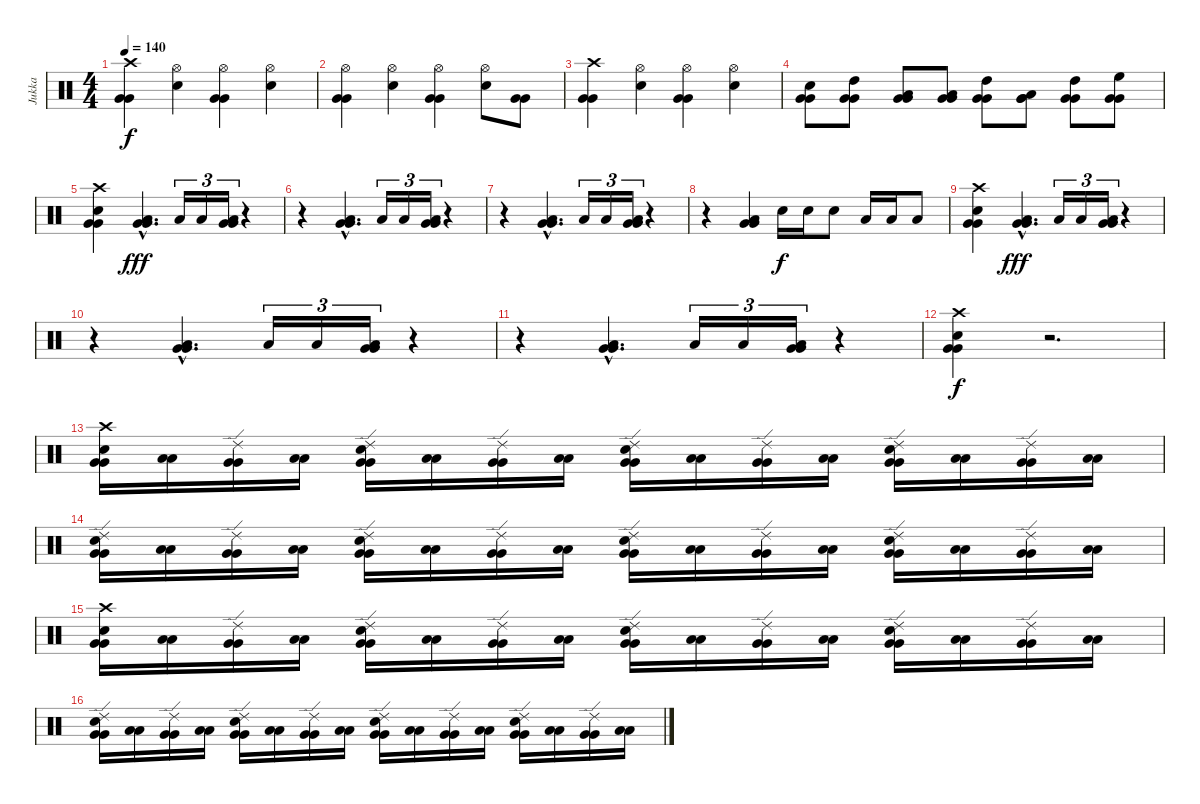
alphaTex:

\track ("Jukka" "Jukka") {instrument percussion}
\staff {score}
\articulation defaults
\ts (4 4)
\tempo 140
\clef neutral
\ks c
("Crash high (hit)" "Very Low Tom (hit)" "Very Low Tom (hit)").4{dy f} ("Hi-Hat (open)" "Electric Snare (hit)").4 ("Hi-Hat (open)" "Very Low Tom (hit)" "Very Low Tom (hit)").4 ("Hi-Hat (open)" "Electric Snare (hit)").4 |
("Hi-Hat (open)" "Very Low Tom (hit)" "Very Low Tom (hit)").4 ("Hi-Hat (open)" "Electric Snare (hit)").4 ("Hi-Hat (open)" "Very Low Tom (hit)" "Very Low Tom (hit)").4 ("Hi-Hat (open)" "Electric Snare (hit)").8 ("Very Low Tom (hit)" "Very Low Tom (hit)").8 |
("Crash high (hit)" "Very Low Tom (hit)" "Very Low Tom (hit)").4 ("Hi-Hat (open)" "Electric Snare (hit)").4 ("Hi-Hat (open)" "Very Low Tom (hit)" "Very Low Tom (hit)").4 ("Hi-Hat (open)" "Electric Snare (hit)").4 |
("Electric Snare (hit)" "Very Low Tom (hit)" "Very Low Tom (hit)").8 ("High Tom (hit)" "Very Low Tom (hit)" "Very Low Tom (hit)").8 ("Low Tom (hit)" "Very Low Tom (hit)" "Very Low Tom (hit)").8 ("Low Tom (hit)" "Very Low Tom (hit)" "Very Low Tom (hit)").8 ("High Tom (hit)" "Very Low Tom (hit)" "Very Low Tom (hit)").8 ("Low Tom (hit)" "Very Low Tom (hit)" "Very Low Tom (hit)").8 ("High Tom (hit)" "Very Low Tom (hit)" "Very Low Tom (hit)").8 ("High Floor Tom (hit)" "Very Low Tom (hit)" "Very Low Tom (hit)").8 |
("Crash high (hit)" "Electric Snare (hit)" "Very Low Tom (hit)" "Very Low Tom (hit)").4 ("Low Tom (hit)"{hac} "Very Low Tom (hit)"{hac} "Very Low Tom (hit)"{hac}).4{d dy fff} "Low Tom (hit)".16{tu (3 2)} "Low Tom (hit)".16{tu (3 2)} ("Low Tom (hit)" "Very Low Tom (hit)" "Very Low Tom (hit)").16{tu (3 2)} r.4 |
r.4 ("Low Tom (hit)"{hac} "Very Low Tom (hit)"{hac} "Very Low Tom (hit)"{hac}).4{d} "Low Tom (hit)".16{tu (3 2)} "Low Tom (hit)".16{tu (3 2)} ("Low Tom (hit)" "Very Low Tom (hit)" "Very Low Tom (hit)").16{tu (3 2)} r.4 |
r.4 ("Low Tom (hit)"{hac} "Very Low Tom (hit)"{hac} "Very Low Tom (hit)"{hac}).4{d} "Low Tom (hit)".16{tu (3 2)} "Low Tom (hit)".16{tu (3 2)} ("Low Tom (hit)" "Very Low Tom (hit)" "Very Low Tom (hit)").16{tu (3 2)} r.4 |
r.4 ("Low Tom (hit)" "Very Low Tom (hit)" "Very Low Tom (hit)").4 "Electric Snare (hit)".16{dy f} "Electric Snare (hit)".16 "Electric Snare (hit)".8 "Low Tom (hit)".16 "Low Tom (hit)".16 "Low Tom (hit)".8 |
("Crash high (hit)" "Electric Snare (hit)" "Very Low Tom (hit)" "Very Low Tom (hit)").4 ("Low Tom (hit)"{hac} "Very Low Tom (hit)"{hac} "Very Low Tom (hit)"{hac}).4{d dy fff} "Low Tom (hit)".16{tu (3 2)} "Low Tom (hit)".16{tu (3 2)} ("Low Tom (hit)" "Very Low Tom (hit)" "Very Low Tom (hit)").16{tu (3 2)} r.4 |
r.4 ("Low Tom (hit)"{hac} "Very Low Tom (hit)"{hac} "Very Low Tom (hit)"{hac}).4{d} "Low Tom (hit)".16{tu (3 2)} "Low Tom (hit)".16{tu (3 2)} ("Low Tom (hit)" "Very Low Tom (hit)" "Very Low Tom (hit)").16{tu (3 2)} r.4 |
r.4 ("Low Tom (hit)"{hac} "Very Low Tom (hit)"{hac} "Very Low Tom (hit)"{hac}).4{d} "Low Tom (hit)".16{tu (3 2)} "Low Tom (hit)".16{tu (3 2)} ("Low Tom (hit)" "Very Low Tom (hit)" "Very Low Tom (hit)").16{tu (3 2)} r.4 |
("Crash high (hit)" "Electric Snare (hit)" "Very Low Tom (hit)" "Very Low Tom (hit)").4{dy f} r.2{d} |
("Crash high (hit)" "Electric Snare (hit)" "Very Low Tom (hit)" "Very Low Tom (hit)").16 ("Low Floor Tom (hit)" "Low Floor Tom (hit)").16 ("Ride (edge) 2" "Very Low Tom (hit)" "Very Low Tom (hit)").16 ("Low Floor Tom (hit)" "Low Floor Tom (hit)").16 ("Ride (edge) 2" "Electric Snare (hit)" "Very Low Tom (hit)" "Very Low Tom (hit)").16 ("Low Floor Tom (hit)" "Low Floor Tom (hit)").16 ("Ride (edge) 2" "Very Low Tom (hit)" "Very Low Tom (hit)").16 ("Low Floor Tom (hit)" "Low Floor Tom (hit)").16 ("Ride (edge) 2" "Electric Snare (hit)" "Very Low Tom (hit)" "Very Low Tom (hit)").16 ("Low Floor Tom (hit)" "Low Floor Tom (hit)").16 ("Ride (edge) 2" "Very Low Tom (hit)" "Very Low Tom (hit)").16 ("Low Floor Tom (hit)" "Low Floor Tom (hit)").16 ("Ride (edge) 2" "Electric Snare (hit)" "Very Low Tom (hit)" "Very Low Tom (hit)").16 ("Low Floor Tom (hit)" "Low Floor Tom (hit)").16 ("Ride (edge) 2" "Very Low Tom (hit)" "Very Low Tom (hit)").16 ("Low Floor Tom (hit)" "Low Floor Tom (hit)").16 |
("Ride (edge) 2" "Electric Snare (hit)" "Very Low Tom (hit)" "Very Low Tom (hit)").16 ("Low Floor Tom (hit)" "Low Floor Tom (hit)").16 ("Ride (edge) 2" "Very Low Tom (hit)" "Very Low Tom (hit)").16 ("Low Floor Tom (hit)" "Low Floor Tom (hit)").16 ("Ride (edge) 2" "Electric Snare (hit)" "Very Low Tom (hit)" "Very Low Tom (hit)").16 ("Low Floor Tom (hit)" "Low Floor Tom (hit)").16 ("Ride (edge) 2" "Very Low Tom (hit)" "Very Low Tom (hit)").16 ("Low Floor Tom (hit)" "Low Floor Tom (hit)").16 ("Ride (edge) 2" "Electric Snare (hit)" "Very Low Tom (hit)" "Very Low Tom (hit)").16 ("Low Floor Tom (hit)" "Low Floor Tom (hit)").16 ("Ride (edge) 2" "Very Low Tom (hit)" "Very Low Tom (hit)").16 ("Low Floor Tom (hit)" "Low Floor Tom (hit)").16 ("Ride (edge) 2" "Electric Snare (hit)" "Very Low Tom (hit)" "Very Low Tom (hit)").16 ("Low Floor Tom (hit)" "Low Floor Tom (hit)").16 ("Ride (edge) 2" "Very Low Tom (hit)" "Very Low Tom (hit)").16 ("Low Floor Tom (hit)" "Low Floor Tom (hit)").16 |
("Crash high (hit)" "Electric Snare (hit)" "Very Low Tom (hit)" "Very Low Tom (hit)").16 ("Low Floor Tom (hit)" "Low Floor Tom (hit)").16 ("Ride (edge) 2" "Very Low Tom (hit)" "Very Low Tom (hit)").16 ("Low Floor Tom (hit)" "Low Floor Tom (hit)").16 ("Ride (edge) 2" "Electric Snare (hit)" "Very Low Tom (hit)" "Very Low Tom (hit)").16 ("Low Floor Tom (hit)" "Low Floor Tom (hit)").16 ("Ride (edge) 2" "Very Low Tom (hit)" "Very Low Tom (hit)").16 ("Low Floor Tom (hit)" "Low Floor Tom (hit)").16 ("Ride (edge) 2" "Electric Snare (hit)" "Very Low Tom (hit)" "Very Low Tom (hit)").16 ("Low Floor Tom (hit)" "Low Floor Tom (hit)").16 ("Ride (edge) 2" "Very Low Tom (hit)" "Very Low Tom (hit)").16 ("Low Floor Tom (hit)" "Low Floor Tom (hit)").16 ("Ride (edge) 2" "Electric Snare (hit)" "Very Low Tom (hit)" "Very Low Tom (hit)").16 ("Low Floor Tom (hit)" "Low Floor Tom (hit)").16 ("Ride (edge) 2" "Very Low Tom (hit)" "Very Low Tom (hit)").16 ("Low Floor Tom (hit)" "Low Floor Tom (hit)").16 |
("Ride (edge) 2" "Electric Snare (hit)" "Very Low Tom (hit)" "Very Low Tom (hit)").16 ("Low Floor Tom (hit)" "Low Floor Tom (hit)").16 ("Ride (edge) 2" "Very Low Tom (hit)" "Very Low Tom (hit)").16 ("Low Floor Tom (hit)" "Low Floor Tom (hit)").16 ("Ride (edge) 2" "Electric Snare (hit)" "Very Low Tom (hit)" "Very Low Tom (hit)").16 ("Low Floor Tom (hit)" "Low Floor Tom (hit)").16 ("Ride (edge) 2" "Very Low Tom (hit)" "Very Low Tom (hit)").16 ("Low Floor Tom (hit)" "Low Floor Tom (hit)").16 ("Ride (edge) 2" "Electric Snare (hit)" "Very Low Tom (hit)" "Very Low Tom (hit)").16 ("Low Floor Tom (hit)" "Low Floor Tom (hit)").16 ("Ride (edge) 2" "Very Low Tom (hit)" "Very Low Tom (hit)").16 ("Low Floor Tom (hit)" "Low Floor Tom (hit)").16 ("Ride (edge) 2" "Electric Snare (hit)" "Very Low Tom (hit)" "Very Low Tom (hit)").16 ("Low Floor Tom (hit)" "Low Floor Tom (hit)").16 ("Ride (edge) 2" "Very Low Tom (hit)" "Very Low Tom (hit)").16 ("Low Floor Tom (hit)" "Low Floor Tom (hit)").16
